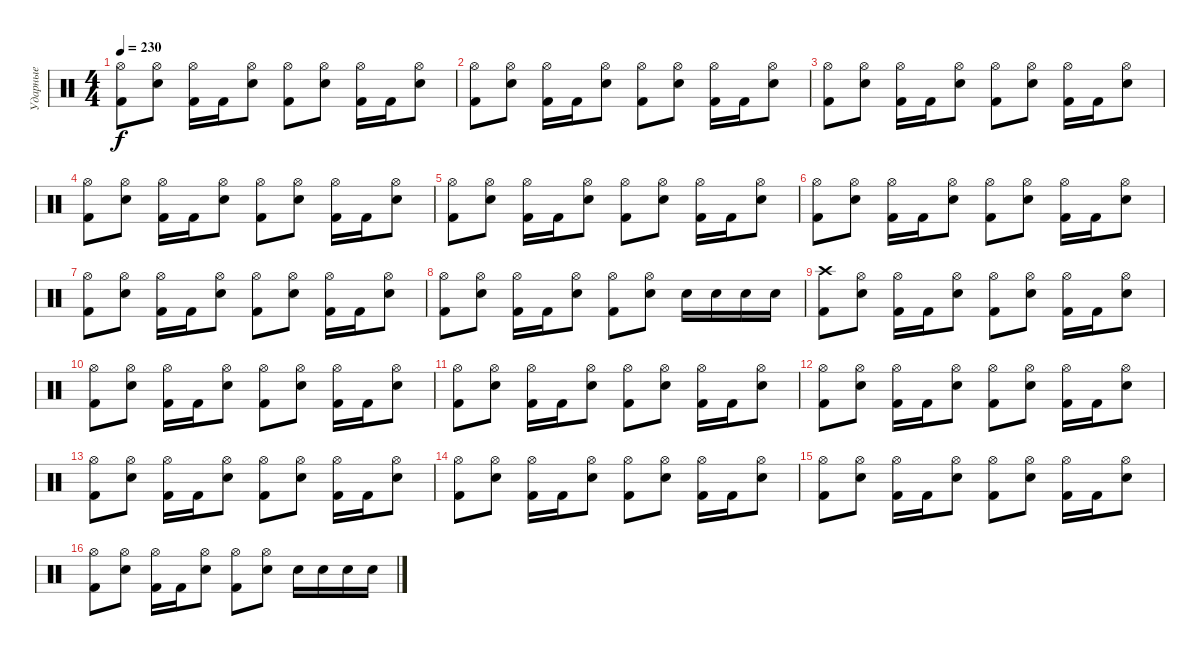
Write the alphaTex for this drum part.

\track ("Ударные" "Ударные") {instrument percussion}
\staff {score}
\articulation defaults
\ts (4 4)
\tempo 230
\clef neutral
\ks c
("Hi-Hat (open)" "Kick (hit) 2").8{dy f} ("Hi-Hat (open)" "Electric Snare (hit)").8 ("Hi-Hat (open)" "Kick (hit) 2").16 "Kick (hit) 2".16 ("Hi-Hat (open)" "Electric Snare (hit)").8 ("Hi-Hat (open)" "Kick (hit) 2").8 ("Hi-Hat (open)" "Electric Snare (hit)").8 ("Hi-Hat (open)" "Kick (hit) 2").16 "Kick (hit) 2".16 ("Hi-Hat (open)" "Electric Snare (hit)").8 |
("Hi-Hat (open)" "Kick (hit) 2").8 ("Hi-Hat (open)" "Electric Snare (hit)").8 ("Hi-Hat (open)" "Kick (hit) 2").16 "Kick (hit) 2".16 ("Hi-Hat (open)" "Electric Snare (hit)").8 ("Hi-Hat (open)" "Kick (hit) 2").8 ("Hi-Hat (open)" "Electric Snare (hit)").8 ("Hi-Hat (open)" "Kick (hit) 2").16 "Kick (hit) 2".16 ("Hi-Hat (open)" "Electric Snare (hit)").8 |
("Hi-Hat (open)" "Kick (hit) 2").8 ("Hi-Hat (open)" "Electric Snare (hit)").8 ("Hi-Hat (open)" "Kick (hit) 2").16 "Kick (hit) 2".16 ("Hi-Hat (open)" "Electric Snare (hit)").8 ("Hi-Hat (open)" "Kick (hit) 2").8 ("Hi-Hat (open)" "Electric Snare (hit)").8 ("Hi-Hat (open)" "Kick (hit) 2").16 "Kick (hit) 2".16 ("Hi-Hat (open)" "Electric Snare (hit)").8 |
("Hi-Hat (open)" "Kick (hit) 2").8 ("Hi-Hat (open)" "Electric Snare (hit)").8 ("Hi-Hat (open)" "Kick (hit) 2").16 "Kick (hit) 2".16 ("Hi-Hat (open)" "Electric Snare (hit)").8 ("Hi-Hat (open)" "Kick (hit) 2").8 ("Hi-Hat (open)" "Electric Snare (hit)").8 ("Hi-Hat (open)" "Kick (hit) 2").16 "Kick (hit) 2".16 ("Hi-Hat (open)" "Electric Snare (hit)").8 |
("Hi-Hat (open)" "Kick (hit) 2").8 ("Hi-Hat (open)" "Electric Snare (hit)").8 ("Hi-Hat (open)" "Kick (hit) 2").16 "Kick (hit) 2".16 ("Hi-Hat (open)" "Electric Snare (hit)").8 ("Hi-Hat (open)" "Kick (hit) 2").8 ("Hi-Hat (open)" "Electric Snare (hit)").8 ("Hi-Hat (open)" "Kick (hit) 2").16 "Kick (hit) 2".16 ("Hi-Hat (open)" "Electric Snare (hit)").8 |
("Hi-Hat (open)" "Kick (hit) 2").8 ("Hi-Hat (open)" "Electric Snare (hit)").8 ("Hi-Hat (open)" "Kick (hit) 2").16 "Kick (hit) 2".16 ("Hi-Hat (open)" "Electric Snare (hit)").8 ("Hi-Hat (open)" "Kick (hit) 2").8 ("Hi-Hat (open)" "Electric Snare (hit)").8 ("Hi-Hat (open)" "Kick (hit) 2").16 "Kick (hit) 2".16 ("Hi-Hat (open)" "Electric Snare (hit)").8 |
("Hi-Hat (open)" "Kick (hit) 2").8 ("Hi-Hat (open)" "Electric Snare (hit)").8 ("Hi-Hat (open)" "Kick (hit) 2").16 "Kick (hit) 2".16 ("Hi-Hat (open)" "Electric Snare (hit)").8 ("Hi-Hat (open)" "Kick (hit) 2").8 ("Hi-Hat (open)" "Electric Snare (hit)").8 ("Hi-Hat (open)" "Kick (hit) 2").16 "Kick (hit) 2".16 ("Hi-Hat (open)" "Electric Snare (hit)").8 |
("Hi-Hat (open)" "Kick (hit) 2").8 ("Hi-Hat (open)" "Electric Snare (hit)").8 ("Hi-Hat (open)" "Kick (hit) 2").16 "Kick (hit) 2".16 ("Hi-Hat (open)" "Electric Snare (hit)").8 ("Hi-Hat (open)" "Kick (hit) 2").8 ("Hi-Hat (open)" "Electric Snare (hit)").8 "Electric Snare (hit)".16 "Electric Snare (hit)".16 "Electric Snare (hit)".16 "Electric Snare (hit)".16 |
("Crash high (hit)" "Kick (hit) 2").8 ("Hi-Hat (open)" "Electric Snare (hit)").8 ("Hi-Hat (open)" "Kick (hit) 2").16 "Kick (hit) 2".16 ("Hi-Hat (open)" "Electric Snare (hit)").8 ("Hi-Hat (open)" "Kick (hit) 2").8 ("Hi-Hat (open)" "Electric Snare (hit)").8 ("Hi-Hat (open)" "Kick (hit) 2").16 "Kick (hit) 2".16 ("Hi-Hat (open)" "Electric Snare (hit)").8 |
("Hi-Hat (open)" "Kick (hit) 2").8 ("Hi-Hat (open)" "Electric Snare (hit)").8 ("Hi-Hat (open)" "Kick (hit) 2").16 "Kick (hit) 2".16 ("Hi-Hat (open)" "Electric Snare (hit)").8 ("Hi-Hat (open)" "Kick (hit) 2").8 ("Hi-Hat (open)" "Electric Snare (hit)").8 ("Hi-Hat (open)" "Kick (hit) 2").16 "Kick (hit) 2".16 ("Hi-Hat (open)" "Electric Snare (hit)").8 |
("Hi-Hat (open)" "Kick (hit) 2").8 ("Hi-Hat (open)" "Electric Snare (hit)").8 ("Hi-Hat (open)" "Kick (hit) 2").16 "Kick (hit) 2".16 ("Hi-Hat (open)" "Electric Snare (hit)").8 ("Hi-Hat (open)" "Kick (hit) 2").8 ("Hi-Hat (open)" "Electric Snare (hit)").8 ("Hi-Hat (open)" "Kick (hit) 2").16 "Kick (hit) 2".16 ("Hi-Hat (open)" "Electric Snare (hit)").8 |
("Hi-Hat (open)" "Kick (hit) 2").8 ("Hi-Hat (open)" "Electric Snare (hit)").8 ("Hi-Hat (open)" "Kick (hit) 2").16 "Kick (hit) 2".16 ("Hi-Hat (open)" "Electric Snare (hit)").8 ("Hi-Hat (open)" "Kick (hit) 2").8 ("Hi-Hat (open)" "Electric Snare (hit)").8 ("Hi-Hat (open)" "Kick (hit) 2").16 "Kick (hit) 2".16 ("Hi-Hat (open)" "Electric Snare (hit)").8 |
("Hi-Hat (open)" "Kick (hit) 2").8 ("Hi-Hat (open)" "Electric Snare (hit)").8 ("Hi-Hat (open)" "Kick (hit) 2").16 "Kick (hit) 2".16 ("Hi-Hat (open)" "Electric Snare (hit)").8 ("Hi-Hat (open)" "Kick (hit) 2").8 ("Hi-Hat (open)" "Electric Snare (hit)").8 ("Hi-Hat (open)" "Kick (hit) 2").16 "Kick (hit) 2".16 ("Hi-Hat (open)" "Electric Snare (hit)").8 |
("Hi-Hat (open)" "Kick (hit) 2").8 ("Hi-Hat (open)" "Electric Snare (hit)").8 ("Hi-Hat (open)" "Kick (hit) 2").16 "Kick (hit) 2".16 ("Hi-Hat (open)" "Electric Snare (hit)").8 ("Hi-Hat (open)" "Kick (hit) 2").8 ("Hi-Hat (open)" "Electric Snare (hit)").8 ("Hi-Hat (open)" "Kick (hit) 2").16 "Kick (hit) 2".16 ("Hi-Hat (open)" "Electric Snare (hit)").8 |
("Hi-Hat (open)" "Kick (hit) 2").8 ("Hi-Hat (open)" "Electric Snare (hit)").8 ("Hi-Hat (open)" "Kick (hit) 2").16 "Kick (hit) 2".16 ("Hi-Hat (open)" "Electric Snare (hit)").8 ("Hi-Hat (open)" "Kick (hit) 2").8 ("Hi-Hat (open)" "Electric Snare (hit)").8 ("Hi-Hat (open)" "Kick (hit) 2").16 "Kick (hit) 2".16 ("Hi-Hat (open)" "Electric Snare (hit)").8 |
("Hi-Hat (open)" "Kick (hit) 2").8 ("Hi-Hat (open)" "Electric Snare (hit)").8 ("Hi-Hat (open)" "Kick (hit) 2").16 "Kick (hit) 2".16 ("Hi-Hat (open)" "Electric Snare (hit)").8 ("Hi-Hat (open)" "Kick (hit) 2").8 ("Hi-Hat (open)" "Electric Snare (hit)").8 "Electric Snare (hit)".16 "Electric Snare (hit)".16 "Electric Snare (hit)".16 "Electric Snare (hit)".16
